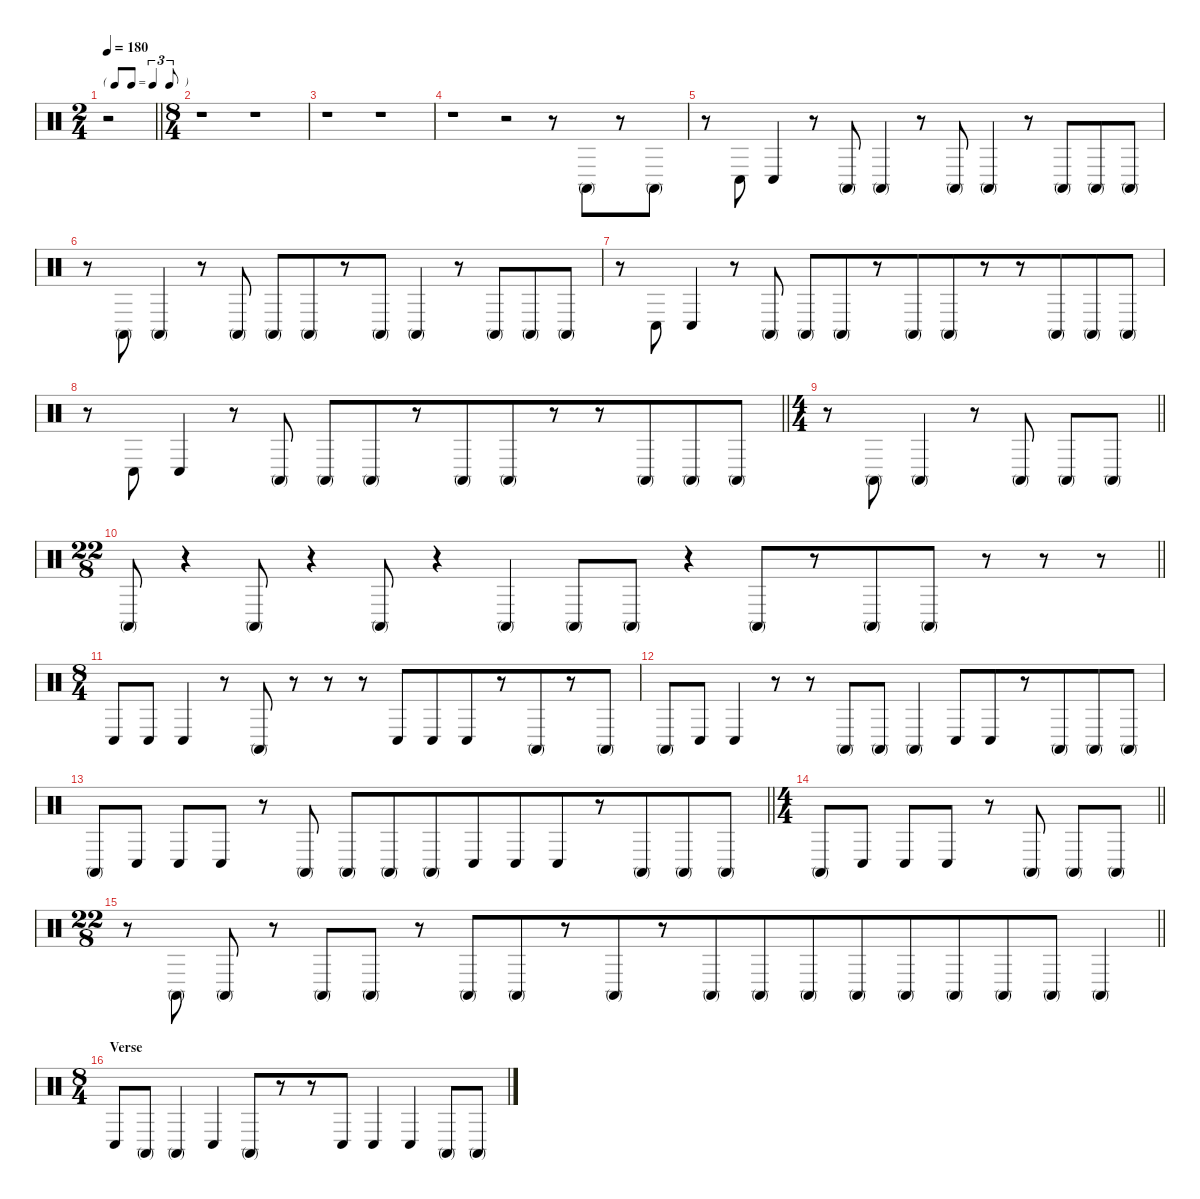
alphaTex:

\defaultSystemsLayout 4
\hideDynamics
\bracketExtendMode nobrackets
\singleTrackTrackNamePolicy hidden
\multiTrackTrackNamePolicy hidden
\firstSystemTrackNameMode fullname
\firstSystemTrackNameOrientation horizontal
\otherSystemsTrackNameOrientation horizontal
\track ("Congas" "drm.") {instrument percussion}
\staff {score}
\articulation defaults
\ts (2 4)
\beaming (8 2 2 2 2)
\tf triplet8th
\tempo 180
\clef neutral
\barLineRight lightlight
\ks c
r.2{dy f beam Down} |
\ts (8 4)
\beaming (8 2 2 2 10)
r.1{beam Down} r.1{beam Down} |
r.1{beam Down} r.1{beam Down} |
r.1{beam Down} r.2{beam Down} r.8{beam Down} "Conga high (mute)".8{beam Up} r.8{beam Up} "Conga high (mute)".8{beam Up} |
r.8{beam Down} "Conga low (hit)".8{beam Up} "Conga low (hit)".4{beam Up} r.8{beam Up} "Conga high (mute)".8{beam Up} "Conga high (mute)".4{beam Up} r.8{beam Up} "Conga high (mute)".8{beam Up} "Conga high (mute)".4{beam Up} r.8{beam Up} "Conga high (mute)".8{beam Up} "Conga high (mute)".8{beam Up} "Conga high (mute)".8{beam Up} |
r.8{beam Down} "Conga high (mute)".8{beam Up} "Conga high (mute)".4{beam Up} r.8{beam Up} "Conga high (mute)".8{beam Up} "Conga high (mute)".8{beam Up} "Conga high (mute)".8{beam Up} r.8{beam Up} "Conga high (mute)".8{beam Up} "Conga high (mute)".4{beam Up} r.8{beam Up} "Conga high (mute)".8{beam Up} "Conga high (mute)".8{beam Up} "Conga high (mute)".8{beam Up} |
r.8{beam Down} "Conga low (hit)".8{beam Up} "Conga low (hit)".4{beam Up} r.8{beam Up} "Conga high (mute)".8{beam Up} "Conga high (mute)".8{beam Up} "Conga high (mute)".8{beam Up} r.8{beam Up} "Conga high (mute)".8{beam Up} "Conga high (mute)".8{beam Up} r.8{beam Up} r.8{beam Up} "Conga high (mute)".8{beam Up} "Conga high (mute)".8{beam Up} "Conga high (mute)".8{beam Up} |
\barLineRight lightlight
r.8{beam Down} "Conga low (hit)".8{beam Up} "Conga low (hit)".4{beam Up} r.8{beam Up} "Conga high (mute)".8{beam Up} "Conga high (mute)".8{beam Up} "Conga high (mute)".8{beam Up} r.8{beam Up} "Conga high (mute)".8{beam Up} "Conga high (mute)".8{beam Up} r.8{beam Up} r.8{beam Up} "Conga high (mute)".8{beam Up} "Conga high (mute)".8{beam Up} "Conga high (mute)".8{beam Up} |
\ts (4 4)
\beaming (8 2 2 2 2)
\barLineRight lightlight
r.8{beam Down} "Conga high (mute)".8{beam Up} "Conga high (mute)".4{beam Up} r.8{beam Up} "Conga high (mute)".8{beam Up} "Conga high (mute)".8{beam Up} "Conga high (mute)".8{beam Up} |
\ts (22 8)
\beaming (8 2 2 2 16)
\barLineRight lightlight "Conga high (mute)".8{beam Up}
r.4{beam Up} "Conga high (mute)".8{beam Up} r.4{beam Up} "Conga high (mute)".8{beam Up} r.4{beam Up} "Conga high (mute)".4{beam Up} "Conga high (mute)".8{beam Up} "Conga high (mute)".8{beam Up} r.4{beam Up} "Conga high (mute)".8{beam Up} r.8{beam Up} "Conga high (mute)".8{beam Up} "Conga high (mute)".8{beam Up} r.8{beam Up} r.8{beam Up} r.8{beam Up} |
\ts (8 4)
\beaming (8 2 2 2 10)
"Conga low (hit)".8{beam Up} "Conga low (hit)".8{beam Up} "Conga low (hit)".4{beam Up} r.8{beam Up} "Conga high (mute)".8{beam Up} r.8{beam Up} r.8{beam Up} r.8{beam Up} "Conga low (hit)".8{beam Up} "Conga low (hit)".8{beam Up} "Conga low (hit)".8{beam Up} r.8{beam Up} "Conga high (mute)".8{beam Up} r.8{beam Up} "Conga high (mute)".8{beam Up} |
"Conga high (mute)".8{beam Up} "Conga low (hit)".8{beam Up} "Conga low (hit)".4{beam Up} r.8{beam Up} r.8{beam Up} "Conga high (mute)".8{beam Up} "Conga high (mute)".8{beam Up} "Conga high (mute)".4{beam Up} "Conga low (hit)".8{beam Up} "Conga low (hit)".8{beam Up} r.8{beam Up} "Conga high (mute)".8{beam Up} "Conga high (mute)".8{beam Up} "Conga high (mute)".8{beam Up} |
\barLineRight lightlight "Conga high (mute)".8{beam Up} "Conga low (hit)".8{beam Up} "Conga low (hit)".8{beam Up} "Conga low (hit)".8{beam Up}
r.8{beam Up} "Conga high (mute)".8{beam Up} "Conga high (mute)".8{beam Up} "Conga high (mute)".8{beam Up} "Conga high (mute)".8{beam Up} "Conga low (hit)".8{beam Up} "Conga low (hit)".8{beam Up} "Conga low (hit)".8{beam Up} r.8{beam Up} "Conga high (mute)".8{beam Up} "Conga high (mute)".8{beam Up} "Conga high (mute)".8{beam Up} |
\ts (4 4)
\beaming (8 2 2 2 2)
\barLineRight lightlight "Conga high (mute)".8{beam Up} "Conga low (hit)".8{beam Up} "Conga low (hit)".8{beam Up} "Conga low (hit)".8{beam Up}
r.8{beam Up} "Conga high (mute)".8{beam Up} "Conga high (mute)".8{beam Up} "Conga high (mute)".8{beam Up} |
\ts (22 8)
\beaming (8 2 2 2 16)
\barLineRight lightlight
r.8{beam Down} "Conga high (mute)".8{beam Up} "Conga high (mute)".8{beam Up} r.8{beam Up} "Conga high (mute)".8{beam Up} "Conga high (mute)".8{beam Up} r.8{beam Up} "Conga high (mute)".8{beam Up} "Conga high (mute)".8{beam Up} r.8{beam Up} "Conga high (mute)".8{beam Up} r.8{beam Up} "Conga high (mute)".8{beam Up} "Conga high (mute)".8{beam Up} "Conga high (mute)".8{beam Up} "Conga high (mute)".8{beam Up} "Conga high (mute)".8{beam Up} "Conga high (mute)".8{beam Up} "Conga high (mute)".8{beam Up} "Conga high (mute)".8{beam Up} "Conga high (mute)".4{beam Up} |
\ts (8 4)
\beaming (8 2 2 2 10)
\section ("" "Verse")
"Conga low (hit)".8{beam Up} "Conga high (mute)".8{beam Up} "Conga high (mute)".4{beam Up} "Conga low (hit)".4{beam Up} "Conga high (mute)".8{beam Up} r.8{beam Up} r.8{beam Up} "Conga low (hit)".8{beam Up} "Conga low (hit)".4{beam Up} "Conga low (hit)".4{beam Up} "Conga high (mute)".8{beam Up} "Conga high (mute)".8{beam Up}
